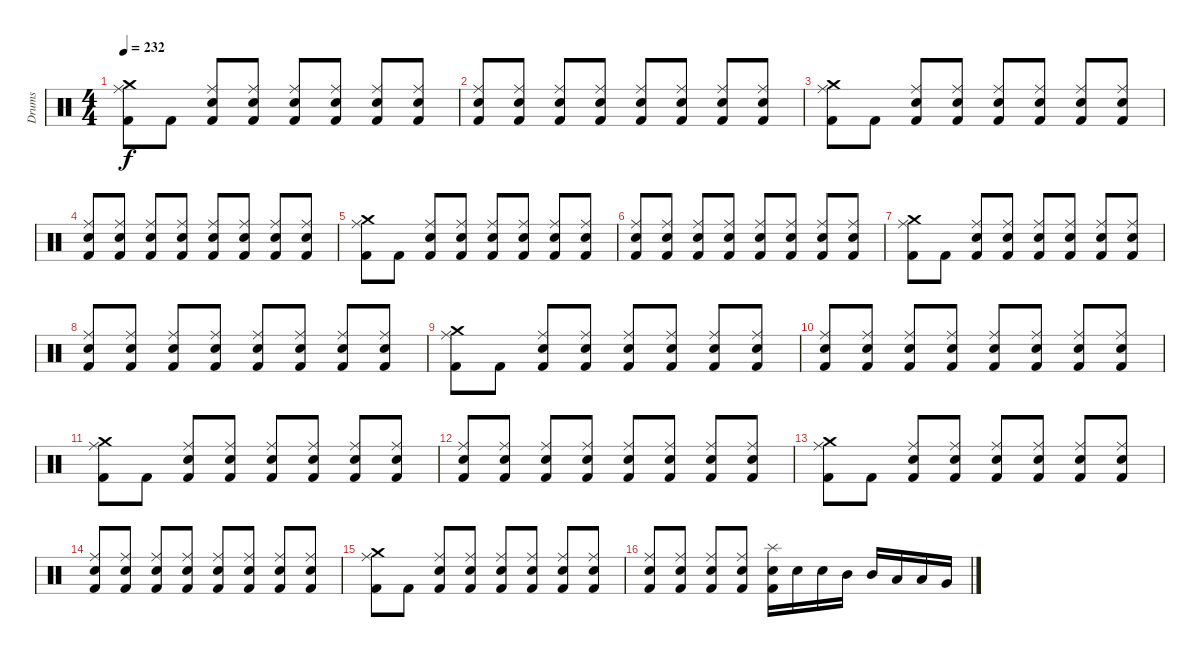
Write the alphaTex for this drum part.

\track ("Drums" "Drums") {instrument percussion}
\staff {score}
\articulation defaults
\ts (4 4)
\tempo 232
\clef neutral
\ks c
("Kick (hit) 2" "Ride (middle)" "Crash medium (hit)").8{dy f} "Kick (hit) 2".8 ("Kick (hit) 2" "Snare (hit) 2" "Ride (middle)").8 ("Kick (hit) 2" "Snare (hit) 2" "Ride (middle)").8 ("Kick (hit) 2" "Snare (hit) 2" "Ride (middle)").8 ("Kick (hit) 2" "Snare (hit) 2" "Ride (middle)").8 ("Kick (hit) 2" "Snare (hit) 2" "Ride (middle)").8 ("Kick (hit) 2" "Snare (hit) 2" "Ride (middle)").8 |
("Kick (hit) 2" "Snare (hit) 2" "Ride (middle)").8 ("Kick (hit) 2" "Snare (hit) 2" "Ride (middle)").8 ("Kick (hit) 2" "Snare (hit) 2" "Ride (middle)").8 ("Kick (hit) 2" "Snare (hit) 2" "Ride (middle)").8 ("Kick (hit) 2" "Snare (hit) 2" "Ride (middle)").8 ("Kick (hit) 2" "Snare (hit) 2" "Ride (middle)").8 ("Kick (hit) 2" "Snare (hit) 2" "Ride (middle)").8 ("Kick (hit) 2" "Snare (hit) 2" "Ride (middle)").8 |
("Kick (hit) 2" "Ride (middle)" "Crash medium (hit)").8 "Kick (hit) 2".8 ("Kick (hit) 2" "Snare (hit) 2" "Ride (middle)").8 ("Kick (hit) 2" "Snare (hit) 2" "Ride (middle)").8 ("Kick (hit) 2" "Snare (hit) 2" "Ride (middle)").8 ("Kick (hit) 2" "Snare (hit) 2" "Ride (middle)").8 ("Kick (hit) 2" "Snare (hit) 2" "Ride (middle)").8 ("Kick (hit) 2" "Snare (hit) 2" "Ride (middle)").8 |
("Kick (hit) 2" "Snare (hit) 2" "Ride (middle)").8 ("Kick (hit) 2" "Snare (hit) 2" "Ride (middle)").8 ("Kick (hit) 2" "Snare (hit) 2" "Ride (middle)").8 ("Kick (hit) 2" "Snare (hit) 2" "Ride (middle)").8 ("Kick (hit) 2" "Snare (hit) 2" "Ride (middle)").8 ("Kick (hit) 2" "Snare (hit) 2" "Ride (middle)").8 ("Kick (hit) 2" "Snare (hit) 2" "Ride (middle)").8 ("Kick (hit) 2" "Snare (hit) 2" "Ride (middle)").8 |
("Kick (hit) 2" "Ride (middle)" "Crash medium (hit)").8 "Kick (hit) 2".8 ("Kick (hit) 2" "Snare (hit) 2" "Ride (middle)").8 ("Kick (hit) 2" "Snare (hit) 2" "Ride (middle)").8 ("Kick (hit) 2" "Snare (hit) 2" "Ride (middle)").8 ("Kick (hit) 2" "Snare (hit) 2" "Ride (middle)").8 ("Kick (hit) 2" "Snare (hit) 2" "Ride (middle)").8 ("Kick (hit) 2" "Snare (hit) 2" "Ride (middle)").8 |
("Kick (hit) 2" "Snare (hit) 2" "Ride (middle)").8 ("Kick (hit) 2" "Snare (hit) 2" "Ride (middle)").8 ("Kick (hit) 2" "Snare (hit) 2" "Ride (middle)").8 ("Kick (hit) 2" "Snare (hit) 2" "Ride (middle)").8 ("Kick (hit) 2" "Snare (hit) 2" "Ride (middle)").8 ("Kick (hit) 2" "Snare (hit) 2" "Ride (middle)").8 ("Kick (hit) 2" "Snare (hit) 2" "Ride (middle)").8 ("Kick (hit) 2" "Snare (hit) 2" "Ride (middle)").8 |
("Kick (hit) 2" "Ride (middle)" "Crash medium (hit)").8 "Kick (hit) 2".8 ("Kick (hit) 2" "Snare (hit) 2" "Ride (middle)").8 ("Kick (hit) 2" "Snare (hit) 2" "Ride (middle)").8 ("Kick (hit) 2" "Snare (hit) 2" "Ride (middle)").8 ("Kick (hit) 2" "Snare (hit) 2" "Ride (middle)").8 ("Kick (hit) 2" "Snare (hit) 2" "Ride (middle)").8 ("Kick (hit) 2" "Snare (hit) 2" "Ride (middle)").8 |
("Kick (hit) 2" "Snare (hit) 2" "Ride (middle)").8 ("Kick (hit) 2" "Snare (hit) 2" "Ride (middle)").8 ("Kick (hit) 2" "Snare (hit) 2" "Ride (middle)").8 ("Kick (hit) 2" "Snare (hit) 2" "Ride (middle)").8 ("Kick (hit) 2" "Snare (hit) 2" "Ride (middle)").8 ("Kick (hit) 2" "Snare (hit) 2" "Ride (middle)").8 ("Kick (hit) 2" "Snare (hit) 2" "Ride (middle)").8 ("Kick (hit) 2" "Snare (hit) 2" "Ride (middle)").8 |
("Kick (hit) 2" "Ride (middle)" "Crash medium (hit)").8 "Kick (hit) 2".8 ("Kick (hit) 2" "Snare (hit) 2" "Ride (middle)").8 ("Kick (hit) 2" "Snare (hit) 2" "Ride (middle)").8 ("Kick (hit) 2" "Snare (hit) 2" "Ride (middle)").8 ("Kick (hit) 2" "Snare (hit) 2" "Ride (middle)").8 ("Kick (hit) 2" "Snare (hit) 2" "Ride (middle)").8 ("Kick (hit) 2" "Snare (hit) 2" "Ride (middle)").8 |
("Kick (hit) 2" "Snare (hit) 2" "Ride (middle)").8 ("Kick (hit) 2" "Snare (hit) 2" "Ride (middle)").8 ("Kick (hit) 2" "Snare (hit) 2" "Ride (middle)").8 ("Kick (hit) 2" "Snare (hit) 2" "Ride (middle)").8 ("Kick (hit) 2" "Snare (hit) 2" "Ride (middle)").8 ("Kick (hit) 2" "Snare (hit) 2" "Ride (middle)").8 ("Kick (hit) 2" "Snare (hit) 2" "Ride (middle)").8 ("Kick (hit) 2" "Snare (hit) 2" "Ride (middle)").8 |
("Kick (hit) 2" "Ride (middle)" "Crash medium (hit)").8 "Kick (hit) 2".8 ("Kick (hit) 2" "Snare (hit) 2" "Ride (middle)").8 ("Kick (hit) 2" "Snare (hit) 2" "Ride (middle)").8 ("Kick (hit) 2" "Snare (hit) 2" "Ride (middle)").8 ("Kick (hit) 2" "Snare (hit) 2" "Ride (middle)").8 ("Kick (hit) 2" "Snare (hit) 2" "Ride (middle)").8 ("Kick (hit) 2" "Snare (hit) 2" "Ride (middle)").8 |
("Kick (hit) 2" "Snare (hit) 2" "Ride (middle)").8 ("Kick (hit) 2" "Snare (hit) 2" "Ride (middle)").8 ("Kick (hit) 2" "Snare (hit) 2" "Ride (middle)").8 ("Kick (hit) 2" "Snare (hit) 2" "Ride (middle)").8 ("Kick (hit) 2" "Snare (hit) 2" "Ride (middle)").8 ("Kick (hit) 2" "Snare (hit) 2" "Ride (middle)").8 ("Kick (hit) 2" "Snare (hit) 2" "Ride (middle)").8 ("Kick (hit) 2" "Snare (hit) 2" "Ride (middle)").8 |
("Kick (hit) 2" "Ride (middle)" "Crash medium (hit)").8 "Kick (hit) 2".8 ("Kick (hit) 2" "Snare (hit) 2" "Ride (middle)").8 ("Kick (hit) 2" "Snare (hit) 2" "Ride (middle)").8 ("Kick (hit) 2" "Snare (hit) 2" "Ride (middle)").8 ("Kick (hit) 2" "Snare (hit) 2" "Ride (middle)").8 ("Kick (hit) 2" "Snare (hit) 2" "Ride (middle)").8 ("Kick (hit) 2" "Snare (hit) 2" "Ride (middle)").8 |
("Kick (hit) 2" "Snare (hit) 2" "Ride (middle)").8 ("Kick (hit) 2" "Snare (hit) 2" "Ride (middle)").8 ("Kick (hit) 2" "Snare (hit) 2" "Ride (middle)").8 ("Kick (hit) 2" "Snare (hit) 2" "Ride (middle)").8 ("Kick (hit) 2" "Snare (hit) 2" "Ride (middle)").8 ("Kick (hit) 2" "Snare (hit) 2" "Ride (middle)").8 ("Kick (hit) 2" "Snare (hit) 2" "Ride (middle)").8 ("Kick (hit) 2" "Snare (hit) 2" "Ride (middle)").8 |
("Kick (hit) 2" "Ride (middle)" "Crash medium (hit)").8 "Kick (hit) 2".8 ("Kick (hit) 2" "Snare (hit) 2" "Ride (middle)").8 ("Kick (hit) 2" "Snare (hit) 2" "Ride (middle)").8 ("Kick (hit) 2" "Snare (hit) 2" "Ride (middle)").8 ("Kick (hit) 2" "Snare (hit) 2" "Ride (middle)").8 ("Kick (hit) 2" "Snare (hit) 2" "Ride (middle)").8 ("Kick (hit) 2" "Snare (hit) 2" "Ride (middle)").8 |
("Kick (hit) 2" "Snare (hit) 2" "Ride (middle)").8 ("Kick (hit) 2" "Snare (hit) 2" "Ride (middle)").8 ("Kick (hit) 2" "Snare (hit) 2" "Ride (middle)").8 ("Kick (hit) 2" "Snare (hit) 2" "Ride (middle)").8 ("Kick (hit) 2" "Snare (hit) 2" "Splash (hit)").16 "Snare (hit) 2".16 "Snare (hit) 2".16 "Mid Tom (hit)".16 "Mid Tom (hit)".16 "Low Tom (hit)".16 "Low Tom (hit)".16 "Very Low Tom (hit)".16
